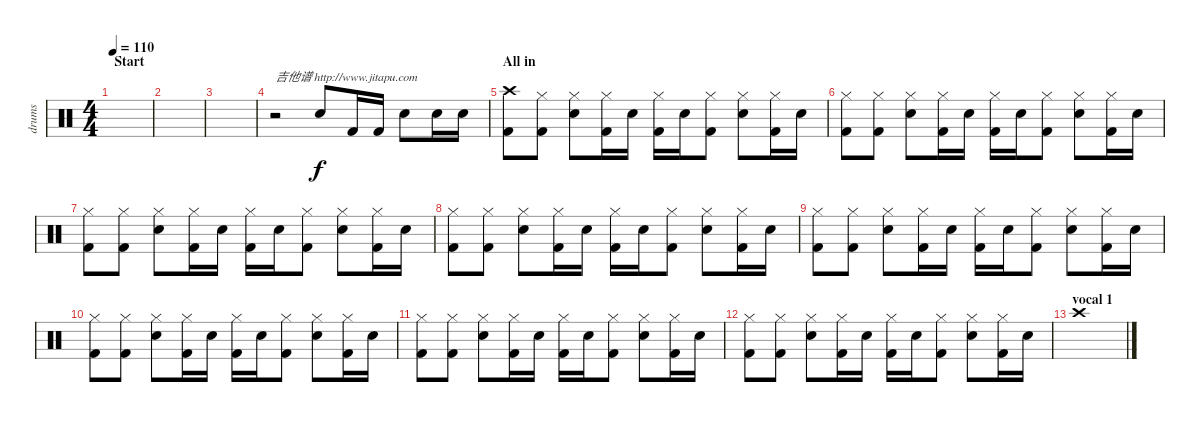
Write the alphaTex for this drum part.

\track ("drums" "drums") {instrument percussion}
\staff {score}
\articulation defaults
\ts (4 4)
\section ("" "Start")
\tempo 110
\clef neutral
\ks c
|
|
|
r.2{txt "吉他谱 http://www.jitapu.com"} "Snare (hit) 2".8 "Kick (hit) 2".16 "Kick (hit) 2".16 "Snare (hit) 2".8 "Snare (hit) 2".16 "Snare (hit) 2".16 |
\section ("" "All in")
("Crash high (hit)" "Kick (hit) 2").8 ("Hi-Hat (closed)" "Kick (hit) 2").8 ("Hi-Hat (closed)" "Snare (hit) 2").8 ("Hi-Hat (closed)" "Kick (hit) 2").16 "Snare (hit) 2".16 ("Hi-Hat (closed)" "Kick (hit) 2").16 "Snare (hit) 2".16 ("Hi-Hat (closed)" "Kick (hit) 2").8 ("Hi-Hat (closed)" "Snare (hit) 2").8 ("Hi-Hat (closed)" "Kick (hit) 2").16 "Snare (hit) 2".16 |
("Hi-Hat (closed)" "Kick (hit) 2").8 ("Hi-Hat (closed)" "Kick (hit) 2").8 ("Hi-Hat (closed)" "Snare (hit) 2").8 ("Hi-Hat (closed)" "Kick (hit) 2").16 "Snare (hit) 2".16 ("Hi-Hat (closed)" "Kick (hit) 2").16 "Snare (hit) 2".16 ("Hi-Hat (closed)" "Kick (hit) 2").8 ("Hi-Hat (closed)" "Snare (hit) 2").8 ("Hi-Hat (closed)" "Kick (hit) 2").16 "Snare (hit) 2".16 |
("Hi-Hat (closed)" "Kick (hit) 2").8 ("Hi-Hat (closed)" "Kick (hit) 2").8 ("Hi-Hat (closed)" "Snare (hit) 2").8 ("Hi-Hat (closed)" "Kick (hit) 2").16 "Snare (hit) 2".16 ("Hi-Hat (closed)" "Kick (hit) 2").16 "Snare (hit) 2".16 ("Hi-Hat (closed)" "Kick (hit) 2").8 ("Hi-Hat (closed)" "Snare (hit) 2").8 ("Hi-Hat (closed)" "Kick (hit) 2").16 "Snare (hit) 2".16 |
("Hi-Hat (closed)" "Kick (hit) 2").8 ("Hi-Hat (closed)" "Kick (hit) 2").8 ("Hi-Hat (closed)" "Snare (hit) 2").8 ("Hi-Hat (closed)" "Kick (hit) 2").16 "Snare (hit) 2".16 ("Hi-Hat (closed)" "Kick (hit) 2").16 "Snare (hit) 2".16 ("Hi-Hat (closed)" "Kick (hit) 2").8 ("Hi-Hat (closed)" "Snare (hit) 2").8 ("Hi-Hat (closed)" "Kick (hit) 2").16 "Snare (hit) 2".16 |
("Hi-Hat (closed)" "Kick (hit) 2").8 ("Hi-Hat (closed)" "Kick (hit) 2").8 ("Hi-Hat (closed)" "Snare (hit) 2").8 ("Hi-Hat (closed)" "Kick (hit) 2").16 "Snare (hit) 2".16 ("Hi-Hat (closed)" "Kick (hit) 2").16 "Snare (hit) 2".16 ("Hi-Hat (closed)" "Kick (hit) 2").8 ("Hi-Hat (closed)" "Snare (hit) 2").8 ("Hi-Hat (closed)" "Kick (hit) 2").16 "Snare (hit) 2".16 |
("Hi-Hat (closed)" "Kick (hit) 2").8 ("Hi-Hat (closed)" "Kick (hit) 2").8 ("Hi-Hat (closed)" "Snare (hit) 2").8 ("Hi-Hat (closed)" "Kick (hit) 2").16 "Snare (hit) 2".16 ("Hi-Hat (closed)" "Kick (hit) 2").16 "Snare (hit) 2".16 ("Hi-Hat (closed)" "Kick (hit) 2").8 ("Hi-Hat (closed)" "Snare (hit) 2").8 ("Hi-Hat (closed)" "Kick (hit) 2").16 "Snare (hit) 2".16 |
("Hi-Hat (closed)" "Kick (hit) 2").8 ("Hi-Hat (closed)" "Kick (hit) 2").8 ("Hi-Hat (closed)" "Snare (hit) 2").8 ("Hi-Hat (closed)" "Kick (hit) 2").16 "Snare (hit) 2".16 ("Hi-Hat (closed)" "Kick (hit) 2").16 "Snare (hit) 2".16 ("Hi-Hat (closed)" "Kick (hit) 2").8 ("Hi-Hat (closed)" "Snare (hit) 2").8 ("Hi-Hat (closed)" "Kick (hit) 2").16 "Snare (hit) 2".16 |
("Hi-Hat (closed)" "Kick (hit) 2").8 ("Hi-Hat (closed)" "Kick (hit) 2").8 ("Hi-Hat (closed)" "Snare (hit) 2").8 ("Hi-Hat (closed)" "Kick (hit) 2").16 "Snare (hit) 2".16 ("Hi-Hat (closed)" "Kick (hit) 2").16 "Snare (hit) 2".16 ("Hi-Hat (closed)" "Kick (hit) 2").8 ("Hi-Hat (closed)" "Snare (hit) 2").8 ("Hi-Hat (closed)" "Kick (hit) 2").16 "Snare (hit) 2".16 |
\section ("" "vocal 1")
"Crash high (hit)".1
